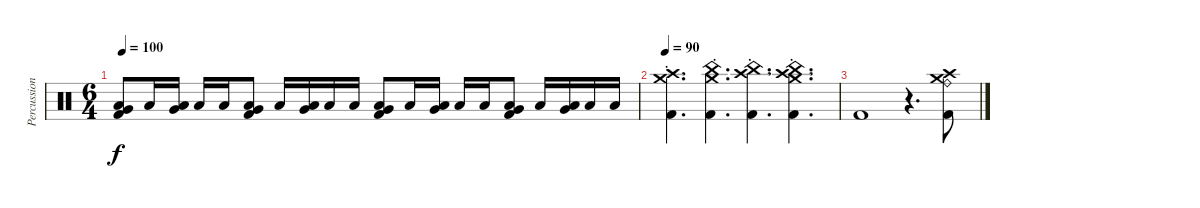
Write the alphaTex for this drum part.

\track ("Percussion" "Percussion") {instrument percussion}
\staff {score}
\articulation defaults
\ts (6 4)
\tempo 100
\clef neutral
\ks c
("Very Low Tom (hit)" "Low Floor Tom (hit)" "Kick (hit) 2").8{dy f} "Low Floor Tom (hit)".16 ("Very Low Tom (hit)" "Low Floor Tom (hit)").16 "Low Floor Tom (hit)".16 "Low Floor Tom (hit)".16 ("Very Low Tom (hit)" "Low Floor Tom (hit)" "Kick (hit) 2").8 "Low Floor Tom (hit)".16 ("Very Low Tom (hit)" "Low Floor Tom (hit)").16 "Low Floor Tom (hit)".16 "Low Floor Tom (hit)".16 ("Very Low Tom (hit)" "Low Floor Tom (hit)" "Kick (hit) 2").8 "Low Floor Tom (hit)".16 ("Very Low Tom (hit)" "Low Floor Tom (hit)").16 "Low Floor Tom (hit)".16 "Low Floor Tom (hit)".16 ("Very Low Tom (hit)" "Low Floor Tom (hit)" "Kick (hit) 2").8 "Low Floor Tom (hit)".16 ("Very Low Tom (hit)" "Low Floor Tom (hit)").16 "Low Floor Tom (hit)".16 "Low Floor Tom (hit)".16 |
\tempo 90
("Crash medium (hit)"{st} "Crash high (hit)"{st} "Kick (hit) 2").4{d} ("China (hit)"{st} "Crash medium (hit)"{st} "Kick (hit) 2").4{d} ("China (hit)"{st} "Crash high (hit)"{st} "Kick (hit) 2").4{d} ("China (hit)"{st} "Crash high (hit)"{st} "Crash medium (hit)"{st} "Kick (hit) 2").4{d} |
"Kick (hit) 2".1 r.4{d} ("Crash medium (hit)" "Crash high (hit)" "Ride (bell)" "Kick (hit) 2").8
